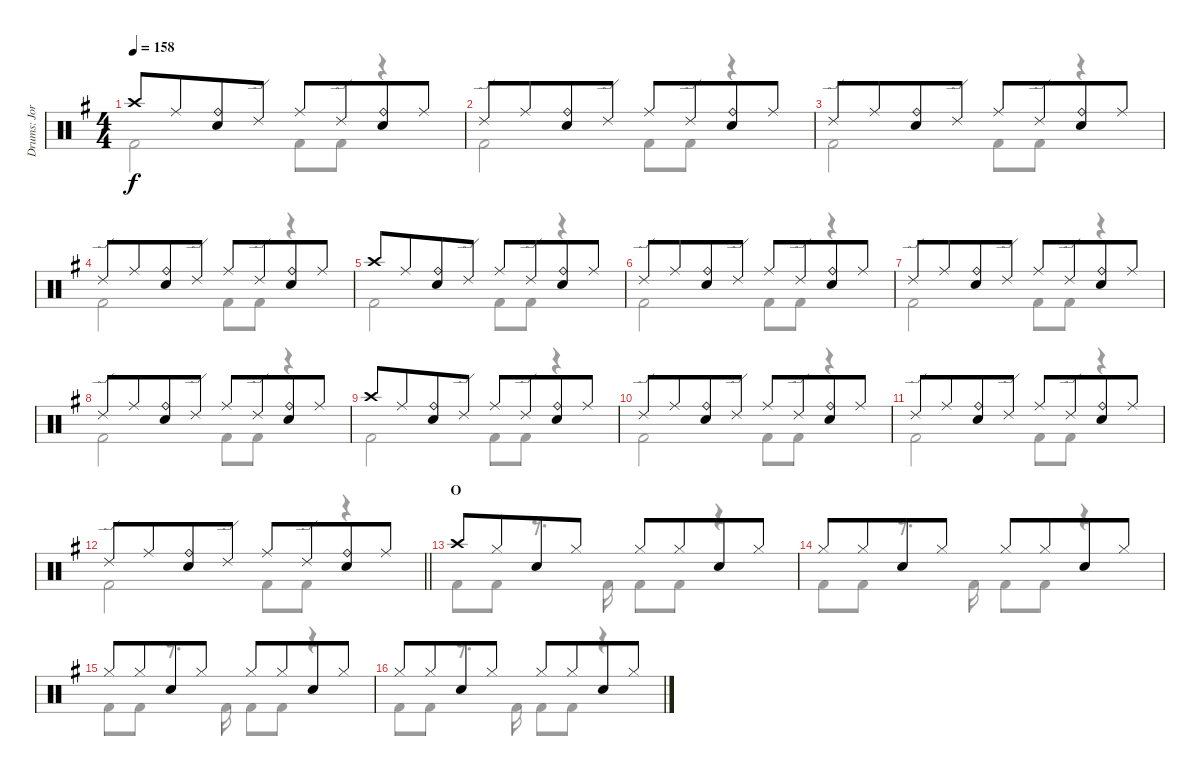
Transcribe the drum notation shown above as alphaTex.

\track ("Drums: Jorg" "Drums: Jor") {instrument percussion}
\staff {score}
\articulation defaults
\voice
\ts (4 4)
\tempo 158
\clef neutral
\ks g "Crash high (hit)".8{dy f} "Ride (middle)".8{beam merge}
("Ride (bell)" "Snare (hit) 2").8 "Ride (edge) 2".8 "Ride (middle)".8 "Ride (edge) 2".8{beam merge} ("Ride (bell)" "Snare (hit) 2").8 "Ride (middle)".8 |
"Ride (edge) 2".8 "Ride (middle)".8{beam merge} ("Ride (bell)" "Snare (hit) 2").8 "Ride (edge) 2".8 "Ride (middle)".8 "Ride (edge) 2".8{beam merge} ("Ride (bell)" "Snare (hit) 2").8 "Ride (middle)".8 |
"Ride (edge) 2".8 "Ride (middle)".8{beam merge} ("Ride (bell)" "Snare (hit) 2").8 "Ride (edge) 2".8 "Ride (middle)".8 "Ride (edge) 2".8{beam merge} ("Ride (bell)" "Snare (hit) 2").8 "Ride (middle)".8 |
"Ride (edge) 2".8 "Ride (middle)".8{beam merge} ("Ride (bell)" "Snare (hit) 2").8 "Ride (edge) 2".8 "Ride (middle)".8 "Ride (edge) 2".8{beam merge} ("Ride (bell)" "Snare (hit) 2").8 "Ride (middle)".8 |
"Crash high (hit)".8 "Ride (middle)".8{beam merge} ("Ride (bell)" "Snare (hit) 2").8 "Ride (edge) 2".8 "Ride (middle)".8 "Ride (edge) 2".8{beam merge} ("Ride (bell)" "Snare (hit) 2").8 "Ride (middle)".8 |
"Ride (edge) 2".8 "Ride (middle)".8{beam merge} ("Ride (bell)" "Snare (hit) 2").8 "Ride (edge) 2".8 "Ride (middle)".8 "Ride (edge) 2".8{beam merge} ("Ride (bell)" "Snare (hit) 2").8 "Ride (middle)".8 |
"Ride (edge) 2".8 "Ride (middle)".8{beam merge} ("Ride (bell)" "Snare (hit) 2").8 "Ride (edge) 2".8 "Ride (middle)".8 "Ride (edge) 2".8{beam merge} ("Ride (bell)" "Snare (hit) 2").8 "Ride (middle)".8 |
"Ride (edge) 2".8 "Ride (middle)".8{beam merge} ("Ride (bell)" "Snare (hit) 2").8 "Ride (edge) 2".8 "Ride (middle)".8 "Ride (edge) 2".8{beam merge} ("Ride (bell)" "Snare (hit) 2").8 "Ride (middle)".8 |
"Crash high (hit)".8 "Ride (middle)".8{beam merge} ("Ride (bell)" "Snare (hit) 2").8 "Ride (edge) 2".8 "Ride (middle)".8 "Ride (edge) 2".8{beam merge} ("Ride (bell)" "Snare (hit) 2").8 "Ride (middle)".8 |
"Ride (edge) 2".8 "Ride (middle)".8{beam merge} ("Ride (bell)" "Snare (hit) 2").8 "Ride (edge) 2".8 "Ride (middle)".8 "Ride (edge) 2".8{beam merge} ("Ride (bell)" "Snare (hit) 2").8 "Ride (middle)".8 |
"Ride (edge) 2".8 "Ride (middle)".8{beam merge} ("Ride (bell)" "Snare (hit) 2").8 "Ride (edge) 2".8 "Ride (middle)".8 "Ride (edge) 2".8{beam merge} ("Ride (bell)" "Snare (hit) 2").8 "Ride (middle)".8 |
\barLineRight lightlight "Ride (edge) 2".8 "Ride (middle)".8{beam merge}
("Ride (bell)" "Snare (hit) 2").8 "Ride (edge) 2".8 "Ride (middle)".8 "Ride (edge) 2".8{beam merge} ("Ride (bell)" "Snare (hit) 2").8 "Ride (middle)".8 |
\section ("" "O")
"Crash high (hit)".8 "Hi-Hat (closed)".8{beam merge} "Snare (hit) 2".8 "Hi-Hat (closed)".8 "Hi-Hat (closed)".8 "Hi-Hat (closed)".8{beam merge} "Snare (hit) 2".8 "Hi-Hat (closed)".8 |
"Hi-Hat (closed)".8 "Hi-Hat (closed)".8{beam merge} "Snare (hit) 2".8 "Hi-Hat (closed)".8 "Hi-Hat (closed)".8 "Hi-Hat (closed)".8{beam merge} "Snare (hit) 2".8 "Hi-Hat (closed)".8 |
"Hi-Hat (closed)".8 "Hi-Hat (closed)".8{beam merge} "Snare (hit) 2".8 "Hi-Hat (closed)".8 "Hi-Hat (closed)".8 "Hi-Hat (closed)".8{beam merge} "Snare (hit) 2".8 "Hi-Hat (closed)".8 |
"Hi-Hat (closed)".8 "Hi-Hat (closed)".8{beam merge} "Snare (hit) 2".8 "Hi-Hat (closed)".8 "Hi-Hat (closed)".8 "Hi-Hat (closed)".8{beam merge} "Snare (hit) 2".8 "Hi-Hat (closed)".8
\voice
\clef neutral
\ottava regular
\simile none
\ks g "Kick (hit) 2".2{dy f} "Kick (hit) 2".8 "Kick (hit) 2".8
r.4 |
"Kick (hit) 2".2 "Kick (hit) 2".8 "Kick (hit) 2".8 r.4 |
"Kick (hit) 2".2 "Kick (hit) 2".8 "Kick (hit) 2".8 r.4 |
"Kick (hit) 2".2 "Kick (hit) 2".8 "Kick (hit) 2".8 r.4 |
"Kick (hit) 2".2 "Kick (hit) 2".8 "Kick (hit) 2".8 r.4 |
"Kick (hit) 2".2 "Kick (hit) 2".8 "Kick (hit) 2".8 r.4 |
"Kick (hit) 2".2 "Kick (hit) 2".8 "Kick (hit) 2".8 r.4 |
"Kick (hit) 2".2 "Kick (hit) 2".8 "Kick (hit) 2".8 r.4 |
"Kick (hit) 2".2 "Kick (hit) 2".8 "Kick (hit) 2".8 r.4 |
"Kick (hit) 2".2 "Kick (hit) 2".8 "Kick (hit) 2".8 r.4 |
"Kick (hit) 2".2 "Kick (hit) 2".8 "Kick (hit) 2".8 r.4 |
\barLineRight lightlight "Kick (hit) 2".2 "Kick (hit) 2".8 "Kick (hit) 2".8
r.4 |
"Kick (hit) 2".8 "Kick (hit) 2".8 r.8{d} "Kick (hit) 2".16 "Kick (hit) 2".8 "Kick (hit) 2".8 r.4 |
"Kick (hit) 2".8 "Kick (hit) 2".8 r.8{d} "Kick (hit) 2".16 "Kick (hit) 2".8 "Kick (hit) 2".8 r.4 |
"Kick (hit) 2".8 "Kick (hit) 2".8 r.8{d} "Kick (hit) 2".16 "Kick (hit) 2".8 "Kick (hit) 2".8 r.4 |
"Kick (hit) 2".8 "Kick (hit) 2".8 r.8{d} "Kick (hit) 2".16 "Kick (hit) 2".8 "Kick (hit) 2".8 r.4
